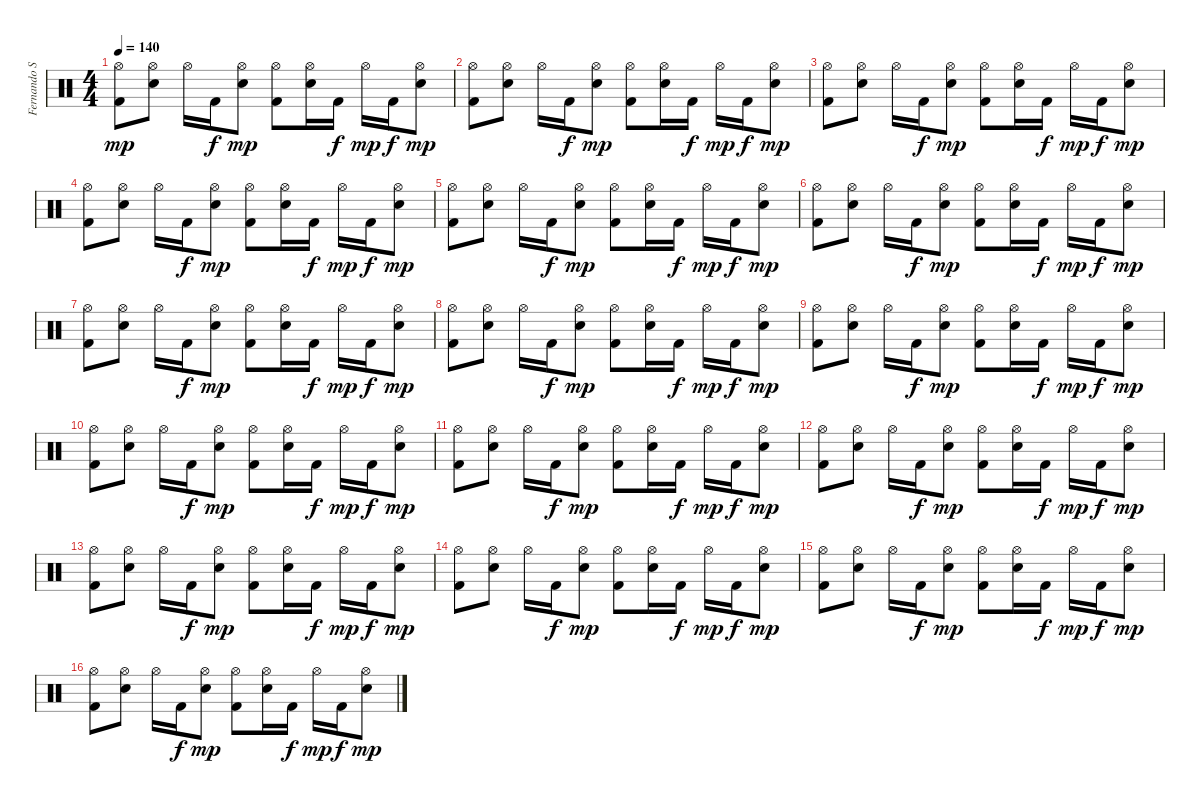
\track ("Fernando Scarcella" "Fernando S") {instrument percussion}
\staff {score}
\articulation defaults
\ts (4 4)
\tempo 140
\clef neutral
\ks c
("Hi-Hat (open)" "Kick (hit) 2").8{dy mp} ("Hi-Hat (open)" "Snare (hit) 2").8 "Hi-Hat (open)".16 "Kick (hit) 2".16{dy f} ("Hi-Hat (open)" "Snare (hit) 2").8{dy mp} ("Hi-Hat (open)" "Kick (hit) 2").8 ("Hi-Hat (open)" "Snare (hit) 2").16 "Kick (hit) 2".16{dy f} "Hi-Hat (open)".16{dy mp} "Kick (hit) 2".16{dy f} ("Hi-Hat (open)" "Snare (hit) 2").8{dy mp} |
("Hi-Hat (open)" "Kick (hit) 2").8 ("Hi-Hat (open)" "Snare (hit) 2").8 "Hi-Hat (open)".16 "Kick (hit) 2".16{dy f} ("Hi-Hat (open)" "Snare (hit) 2").8{dy mp} ("Hi-Hat (open)" "Kick (hit) 2").8 ("Hi-Hat (open)" "Snare (hit) 2").16 "Kick (hit) 2".16{dy f} "Hi-Hat (open)".16{dy mp} "Kick (hit) 2".16{dy f} ("Hi-Hat (open)" "Snare (hit) 2").8{dy mp} |
("Hi-Hat (open)" "Kick (hit) 2").8 ("Hi-Hat (open)" "Snare (hit) 2").8 "Hi-Hat (open)".16 "Kick (hit) 2".16{dy f} ("Hi-Hat (open)" "Snare (hit) 2").8{dy mp} ("Hi-Hat (open)" "Kick (hit) 2").8 ("Hi-Hat (open)" "Snare (hit) 2").16 "Kick (hit) 2".16{dy f} "Hi-Hat (open)".16{dy mp} "Kick (hit) 2".16{dy f} ("Hi-Hat (open)" "Snare (hit) 2").8{dy mp} |
("Hi-Hat (open)" "Kick (hit) 2").8 ("Hi-Hat (open)" "Snare (hit) 2").8 "Hi-Hat (open)".16 "Kick (hit) 2".16{dy f} ("Hi-Hat (open)" "Snare (hit) 2").8{dy mp} ("Hi-Hat (open)" "Kick (hit) 2").8 ("Hi-Hat (open)" "Snare (hit) 2").16 "Kick (hit) 2".16{dy f} "Hi-Hat (open)".16{dy mp} "Kick (hit) 2".16{dy f} ("Hi-Hat (open)" "Snare (hit) 2").8{dy mp} |
("Hi-Hat (open)" "Kick (hit) 2").8 ("Hi-Hat (open)" "Snare (hit) 2").8 "Hi-Hat (open)".16 "Kick (hit) 2".16{dy f} ("Hi-Hat (open)" "Snare (hit) 2").8{dy mp} ("Hi-Hat (open)" "Kick (hit) 2").8 ("Hi-Hat (open)" "Snare (hit) 2").16 "Kick (hit) 2".16{dy f} "Hi-Hat (open)".16{dy mp} "Kick (hit) 2".16{dy f} ("Hi-Hat (open)" "Snare (hit) 2").8{dy mp} |
("Hi-Hat (open)" "Kick (hit) 2").8 ("Hi-Hat (open)" "Snare (hit) 2").8 "Hi-Hat (open)".16 "Kick (hit) 2".16{dy f} ("Hi-Hat (open)" "Snare (hit) 2").8{dy mp} ("Hi-Hat (open)" "Kick (hit) 2").8 ("Hi-Hat (open)" "Snare (hit) 2").16 "Kick (hit) 2".16{dy f} "Hi-Hat (open)".16{dy mp} "Kick (hit) 2".16{dy f} ("Hi-Hat (open)" "Snare (hit) 2").8{dy mp} |
("Hi-Hat (open)" "Kick (hit) 2").8 ("Hi-Hat (open)" "Snare (hit) 2").8 "Hi-Hat (open)".16 "Kick (hit) 2".16{dy f} ("Hi-Hat (open)" "Snare (hit) 2").8{dy mp} ("Hi-Hat (open)" "Kick (hit) 2").8 ("Hi-Hat (open)" "Snare (hit) 2").16 "Kick (hit) 2".16{dy f} "Hi-Hat (open)".16{dy mp} "Kick (hit) 2".16{dy f} ("Hi-Hat (open)" "Snare (hit) 2").8{dy mp} |
("Hi-Hat (open)" "Kick (hit) 2").8 ("Hi-Hat (open)" "Snare (hit) 2").8 "Hi-Hat (open)".16 "Kick (hit) 2".16{dy f} ("Hi-Hat (open)" "Snare (hit) 2").8{dy mp} ("Hi-Hat (open)" "Kick (hit) 2").8 ("Hi-Hat (open)" "Snare (hit) 2").16 "Kick (hit) 2".16{dy f} "Hi-Hat (open)".16{dy mp} "Kick (hit) 2".16{dy f} ("Hi-Hat (open)" "Snare (hit) 2").8{dy mp} |
("Hi-Hat (open)" "Kick (hit) 2").8 ("Hi-Hat (open)" "Snare (hit) 2").8 "Hi-Hat (open)".16 "Kick (hit) 2".16{dy f} ("Hi-Hat (open)" "Snare (hit) 2").8{dy mp} ("Hi-Hat (open)" "Kick (hit) 2").8 ("Hi-Hat (open)" "Snare (hit) 2").16 "Kick (hit) 2".16{dy f} "Hi-Hat (open)".16{dy mp} "Kick (hit) 2".16{dy f} ("Hi-Hat (open)" "Snare (hit) 2").8{dy mp} |
("Hi-Hat (open)" "Kick (hit) 2").8 ("Hi-Hat (open)" "Snare (hit) 2").8 "Hi-Hat (open)".16 "Kick (hit) 2".16{dy f} ("Hi-Hat (open)" "Snare (hit) 2").8{dy mp} ("Hi-Hat (open)" "Kick (hit) 2").8 ("Hi-Hat (open)" "Snare (hit) 2").16 "Kick (hit) 2".16{dy f} "Hi-Hat (open)".16{dy mp} "Kick (hit) 2".16{dy f} ("Hi-Hat (open)" "Snare (hit) 2").8{dy mp} |
("Hi-Hat (open)" "Kick (hit) 2").8 ("Hi-Hat (open)" "Snare (hit) 2").8 "Hi-Hat (open)".16 "Kick (hit) 2".16{dy f} ("Hi-Hat (open)" "Snare (hit) 2").8{dy mp} ("Hi-Hat (open)" "Kick (hit) 2").8 ("Hi-Hat (open)" "Snare (hit) 2").16 "Kick (hit) 2".16{dy f} "Hi-Hat (open)".16{dy mp} "Kick (hit) 2".16{dy f} ("Hi-Hat (open)" "Snare (hit) 2").8{dy mp} |
("Hi-Hat (open)" "Kick (hit) 2").8 ("Hi-Hat (open)" "Snare (hit) 2").8 "Hi-Hat (open)".16 "Kick (hit) 2".16{dy f} ("Hi-Hat (open)" "Snare (hit) 2").8{dy mp} ("Hi-Hat (open)" "Kick (hit) 2").8 ("Hi-Hat (open)" "Snare (hit) 2").16 "Kick (hit) 2".16{dy f} "Hi-Hat (open)".16{dy mp} "Kick (hit) 2".16{dy f} ("Hi-Hat (open)" "Snare (hit) 2").8{dy mp} |
("Hi-Hat (open)" "Kick (hit) 2").8 ("Hi-Hat (open)" "Snare (hit) 2").8 "Hi-Hat (open)".16 "Kick (hit) 2".16{dy f} ("Hi-Hat (open)" "Snare (hit) 2").8{dy mp} ("Hi-Hat (open)" "Kick (hit) 2").8 ("Hi-Hat (open)" "Snare (hit) 2").16 "Kick (hit) 2".16{dy f} "Hi-Hat (open)".16{dy mp} "Kick (hit) 2".16{dy f} ("Hi-Hat (open)" "Snare (hit) 2").8{dy mp} |
("Hi-Hat (open)" "Kick (hit) 2").8 ("Hi-Hat (open)" "Snare (hit) 2").8 "Hi-Hat (open)".16 "Kick (hit) 2".16{dy f} ("Hi-Hat (open)" "Snare (hit) 2").8{dy mp} ("Hi-Hat (open)" "Kick (hit) 2").8 ("Hi-Hat (open)" "Snare (hit) 2").16 "Kick (hit) 2".16{dy f} "Hi-Hat (open)".16{dy mp} "Kick (hit) 2".16{dy f} ("Hi-Hat (open)" "Snare (hit) 2").8{dy mp} |
("Hi-Hat (open)" "Kick (hit) 2").8 ("Hi-Hat (open)" "Snare (hit) 2").8 "Hi-Hat (open)".16 "Kick (hit) 2".16{dy f} ("Hi-Hat (open)" "Snare (hit) 2").8{dy mp} ("Hi-Hat (open)" "Kick (hit) 2").8 ("Hi-Hat (open)" "Snare (hit) 2").16 "Kick (hit) 2".16{dy f} "Hi-Hat (open)".16{dy mp} "Kick (hit) 2".16{dy f} ("Hi-Hat (open)" "Snare (hit) 2").8{dy mp} |
("Hi-Hat (open)" "Kick (hit) 2").8 ("Hi-Hat (open)" "Snare (hit) 2").8 "Hi-Hat (open)".16 "Kick (hit) 2".16{dy f} ("Hi-Hat (open)" "Snare (hit) 2").8{dy mp} ("Hi-Hat (open)" "Kick (hit) 2").8 ("Hi-Hat (open)" "Snare (hit) 2").16 "Kick (hit) 2".16{dy f} "Hi-Hat (open)".16{dy mp} "Kick (hit) 2".16{dy f} ("Hi-Hat (open)" "Snare (hit) 2").8{dy mp}
